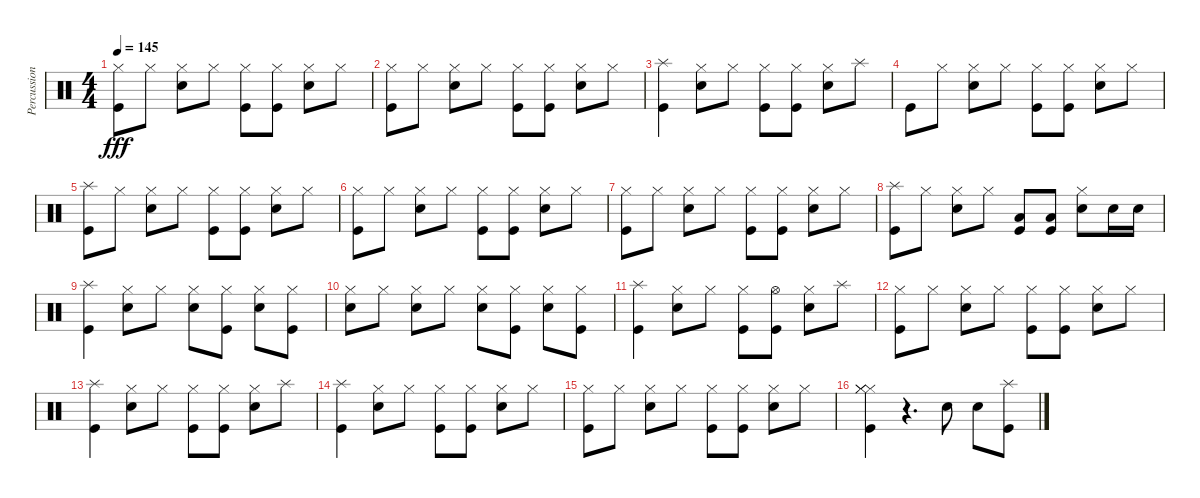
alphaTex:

\track ("Percussion" "Percussion") {instrument percussion}
\staff {score}
\articulation defaults
\ts (4 4)
\tempo 145
\clef neutral
\ks c
("Hi-Hat (closed)" "Kick (hit)").8{dy fff} "Hi-Hat (closed)".8 ("Hi-Hat (closed)" "Snare (hit) 2").8 "Hi-Hat (closed)".8 ("Hi-Hat (closed)" "Kick (hit)").8 ("Hi-Hat (closed)" "Kick (hit)").8 ("Hi-Hat (closed)" "Snare (hit) 2").8 "Hi-Hat (closed)".8 |
("Hi-Hat (closed)" "Kick (hit)").8 "Hi-Hat (closed)".8 ("Hi-Hat (closed)" "Snare (hit) 2").8 "Hi-Hat (closed)".8 ("Hi-Hat (closed)" "Kick (hit)").8 ("Hi-Hat (closed)" "Kick (hit)").8 ("Hi-Hat (closed)" "Snare (hit) 2").8 "Hi-Hat (closed)".8 |
("Splash (hit)" "Kick (hit)").4 ("Hi-Hat (closed)" "Snare (hit) 2").8 "Hi-Hat (closed)".8 ("Hi-Hat (closed)" "Kick (hit)").8 ("Hi-Hat (closed)" "Kick (hit)").8 ("Hi-Hat (closed)" "Snare (hit) 2").8 "Splash (hit)".8 |
"Kick (hit)".8 "Hi-Hat (closed)".8 ("Hi-Hat (closed)" "Snare (hit) 2").8 "Hi-Hat (closed)".8 ("Hi-Hat (closed)" "Kick (hit)").8 ("Hi-Hat (closed)" "Kick (hit)").8 ("Hi-Hat (closed)" "Snare (hit) 2").8 "Hi-Hat (closed)".8 |
("Splash (hit)" "Kick (hit)").8 "Hi-Hat (closed)".8 ("Hi-Hat (closed)" "Snare (hit) 2").8 "Hi-Hat (closed)".8 ("Hi-Hat (closed)" "Kick (hit)").8 ("Hi-Hat (closed)" "Kick (hit)").8 ("Hi-Hat (closed)" "Snare (hit) 2").8 "Hi-Hat (closed)".8 |
("Hi-Hat (closed)" "Kick (hit)").8 "Hi-Hat (closed)".8 ("Hi-Hat (closed)" "Snare (hit) 2").8 "Hi-Hat (closed)".8 ("Hi-Hat (closed)" "Kick (hit)").8 ("Hi-Hat (closed)" "Kick (hit)").8 ("Hi-Hat (closed)" "Snare (hit) 2").8 "Hi-Hat (closed)".8 |
("Hi-Hat (closed)" "Kick (hit)").8 "Hi-Hat (closed)".8 ("Hi-Hat (closed)" "Snare (hit) 2").8 "Hi-Hat (closed)".8 ("Hi-Hat (closed)" "Kick (hit)").8 ("Hi-Hat (closed)" "Kick (hit)").8 ("Hi-Hat (closed)" "Snare (hit) 2").8 "Hi-Hat (closed)".8 |
("Splash (hit)" "Kick (hit)").8 "Hi-Hat (closed)".8 ("Hi-Hat (closed)" "Snare (hit) 2").8 "Hi-Hat (closed)".8 ("Low Tom (hit)" "Kick (hit)").8 ("Low Tom (hit)" "Kick (hit)").8 ("Hi-Hat (closed)" "Snare (hit) 2").8 "Snare (hit) 2".16 "Snare (hit) 2".16 |
("Splash (hit)" "Kick (hit)").4 ("Hi-Hat (closed)" "Snare (hit) 2").8 "Hi-Hat (closed)".8 ("Hi-Hat (closed)" "Snare (hit) 2").8 ("Hi-Hat (closed)" "Kick (hit)").8 ("Hi-Hat (closed)" "Snare (hit) 2").8 ("Hi-Hat (closed)" "Kick (hit)").8 |
("Hi-Hat (closed)" "Snare (hit) 2").8 "Hi-Hat (closed)".8 ("Hi-Hat (closed)" "Snare (hit) 2").8 "Hi-Hat (closed)".8 ("Hi-Hat (closed)" "Snare (hit) 2").8 ("Hi-Hat (closed)" "Kick (hit)").8 ("Hi-Hat (closed)" "Snare (hit) 2").8 ("Hi-Hat (closed)" "Kick (hit)").8 |
("Splash (hit)" "Kick (hit)").4 ("Hi-Hat (closed)" "Snare (hit) 2").8 "Hi-Hat (closed)".8 ("Hi-Hat (closed)" "Kick (hit)").8 ("Hi-Hat (open)" "Kick (hit)").8 ("Hi-Hat (closed)" "Snare (hit) 2").8 "Splash (hit)".8 |
("Hi-Hat (closed)" "Kick (hit)").8 "Hi-Hat (closed)".8 ("Hi-Hat (closed)" "Snare (hit) 2").8 "Hi-Hat (closed)".8 ("Hi-Hat (closed)" "Kick (hit)").8 ("Hi-Hat (closed)" "Kick (hit)").8 ("Hi-Hat (closed)" "Snare (hit) 2").8 "Hi-Hat (closed)".8 |
("Splash (hit)" "Kick (hit)").4 ("Hi-Hat (closed)" "Snare (hit) 2").8 "Hi-Hat (closed)".8 ("Hi-Hat (closed)" "Kick (hit)").8 ("Hi-Hat (closed)" "Kick (hit)").8 ("Hi-Hat (closed)" "Snare (hit) 2").8 "Splash (hit)".8 |
("Splash (hit)" "Kick (hit)").4 ("Hi-Hat (closed)" "Snare (hit) 2").8 "Hi-Hat (closed)".8 ("Hi-Hat (closed)" "Kick (hit)").8 ("Hi-Hat (closed)" "Kick (hit)").8 ("Hi-Hat (closed)" "Snare (hit) 2").8 "Hi-Hat (closed)".8 |
("Hi-Hat (closed)" "Kick (hit)").8 "Hi-Hat (closed)".8 ("Hi-Hat (closed)" "Snare (hit) 2").8 "Hi-Hat (closed)".8 ("Hi-Hat (closed)" "Kick (hit)").8 ("Hi-Hat (closed)" "Kick (hit)").8 ("Hi-Hat (closed)" "Snare (hit) 2").8 "Hi-Hat (closed)".8 |
("Hi-Hat (closed)" "Hi-Hat (closed)" "Hi-Hat (closed)" "Kick (hit)").4 r.4{d} "Snare (hit) 2".8 "Snare (hit) 2".8 ("Splash (hit)" "Kick (hit)").8
